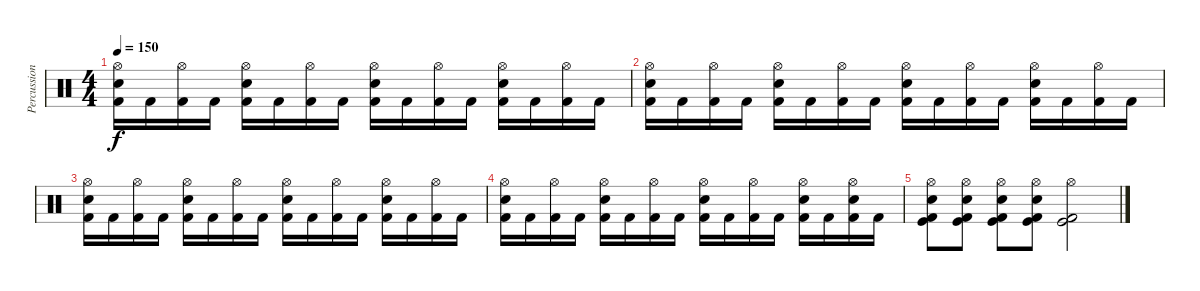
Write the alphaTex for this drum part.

\track ("Percussions" "Percussion") {instrument percussion}
\staff {score}
\articulation defaults
\ts (4 4)
\tempo 150
\clef neutral
\ks c
("Hi-Hat (open)" "Electric Snare (hit)" "Kick (hit) 2").16{dy f} "Kick (hit) 2".16 ("Hi-Hat (open)" "Kick (hit) 2").16 "Kick (hit) 2".16 ("Hi-Hat (open)" "Electric Snare (hit)" "Kick (hit) 2").16 "Kick (hit) 2".16 ("Hi-Hat (open)" "Kick (hit) 2").16 "Kick (hit) 2".16 ("Hi-Hat (open)" "Electric Snare (hit)" "Kick (hit) 2").16 "Kick (hit) 2".16 ("Hi-Hat (open)" "Kick (hit) 2").16 "Kick (hit) 2".16 ("Hi-Hat (open)" "Electric Snare (hit)" "Kick (hit) 2").16 "Kick (hit) 2".16 ("Hi-Hat (open)" "Kick (hit) 2").16 "Kick (hit) 2".16 |
("Hi-Hat (open)" "Electric Snare (hit)" "Kick (hit) 2").16 "Kick (hit) 2".16 ("Hi-Hat (open)" "Kick (hit) 2").16 "Kick (hit) 2".16 ("Hi-Hat (open)" "Electric Snare (hit)" "Kick (hit) 2").16 "Kick (hit) 2".16 ("Hi-Hat (open)" "Kick (hit) 2").16 "Kick (hit) 2".16 ("Hi-Hat (open)" "Electric Snare (hit)" "Kick (hit) 2").16 "Kick (hit) 2".16 ("Hi-Hat (open)" "Kick (hit) 2").16 "Kick (hit) 2".16 ("Hi-Hat (open)" "Electric Snare (hit)" "Kick (hit) 2").16 "Kick (hit) 2".16 ("Hi-Hat (open)" "Kick (hit) 2").16 "Kick (hit) 2".16 |
("Hi-Hat (open)" "Electric Snare (hit)" "Kick (hit) 2").16 "Kick (hit) 2".16 ("Hi-Hat (open)" "Kick (hit) 2").16 "Kick (hit) 2".16 ("Hi-Hat (open)" "Electric Snare (hit)" "Kick (hit) 2").16 "Kick (hit) 2".16 ("Hi-Hat (open)" "Kick (hit) 2").16 "Kick (hit) 2".16 ("Hi-Hat (open)" "Electric Snare (hit)" "Kick (hit) 2").16 "Kick (hit) 2".16 ("Hi-Hat (open)" "Kick (hit) 2").16 "Kick (hit) 2".16 ("Hi-Hat (open)" "Electric Snare (hit)" "Kick (hit) 2").16 "Kick (hit) 2".16 ("Hi-Hat (open)" "Kick (hit) 2").16 "Kick (hit) 2".16 |
("Hi-Hat (open)" "Electric Snare (hit)" "Kick (hit) 2").16 "Kick (hit) 2".16 ("Hi-Hat (open)" "Kick (hit) 2").16 "Kick (hit) 2".16 ("Hi-Hat (open)" "Electric Snare (hit)" "Kick (hit) 2").16 "Kick (hit) 2".16 ("Hi-Hat (open)" "Kick (hit) 2").16 "Kick (hit) 2".16 ("Hi-Hat (open)" "Electric Snare (hit)" "Kick (hit) 2").16 "Kick (hit) 2".16 ("Hi-Hat (open)" "Kick (hit) 2").16 "Kick (hit) 2".16 ("Hi-Hat (open)" "Electric Snare (hit)" "Kick (hit) 2").16 "Kick (hit) 2".16 ("Hi-Hat (open)" "Electric Snare (hit)" "Kick (hit) 2").16 "Kick (hit) 2".16 |
("Hi-Hat (open)" "Electric Snare (hit)" "Kick (hit)" "Kick (hit) 2").8 ("Hi-Hat (open)" "Electric Snare (hit)" "Kick (hit)" "Kick (hit) 2").8 ("Hi-Hat (open)" "Electric Snare (hit)" "Kick (hit)" "Kick (hit) 2").8 ("Hi-Hat (open)" "Electric Snare (hit)" "Kick (hit)" "Kick (hit) 2").8 ("Hi-Hat (open)" "Kick (hit)" "Kick (hit) 2").2
